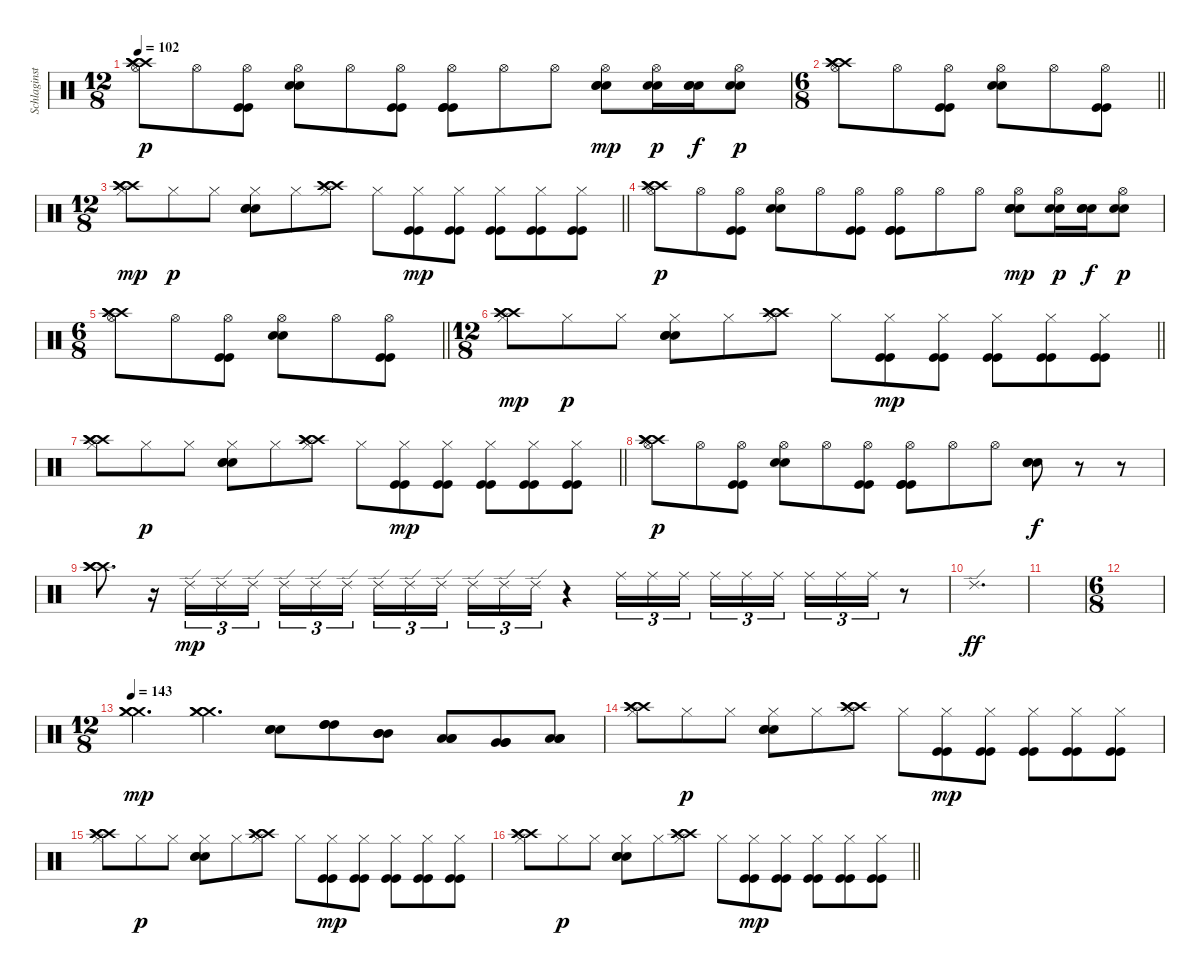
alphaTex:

\track ("Schlaginstrumente - Auswahl" "Schlaginst") {instrument percussion}
\staff {score}
\articulation defaults
\ts (12 8)
\tempo 102
\clef neutral
\ks c
("Hi-Hat (open)" "Crash high (hit)" "Crash high (hit)" "Crash high (hit)").8{dy p} "Hi-Hat (open)".8 ("Hi-Hat (open)" "Kick (hit)" "Kick (hit)").8 ("Hi-Hat (open)" "Snare (hit) 2" "Snare (hit) 2").8 "Hi-Hat (open)".8 ("Hi-Hat (open)" "Kick (hit)" "Kick (hit)").8 ("Hi-Hat (open)" "Kick (hit)" "Kick (hit)" "Kick (hit)").8 "Hi-Hat (open)".8 "Hi-Hat (open)".8 ("Hi-Hat (open)" "Snare (hit) 2" "Snare (hit) 2" "Snare (hit) 2").8{dy mp} ("Hi-Hat (open)" "Snare (hit) 2" "Snare (hit) 2").16{dy p} ("Snare (hit) 2" "Snare (hit) 2" "Snare (hit) 2").16{dy f} ("Hi-Hat (open)" "Snare (hit) 2" "Snare (hit) 2").8{dy p} |
\ts (6 8)
\barLineRight lightlight
("Hi-Hat (open)" "Crash high (hit)" "Crash high (hit)" "Crash high (hit)").8 "Hi-Hat (open)".8 ("Hi-Hat (open)" "Kick (hit)" "Kick (hit)").8 ("Hi-Hat (open)" "Snare (hit) 2" "Snare (hit) 2").8 "Hi-Hat (open)".8 ("Hi-Hat (open)" "Kick (hit)" "Kick (hit)").8 |
\ts (12 8)
\barLineRight lightlight
("Hi-Hat (closed)" "Crash high (hit)" "Crash high (hit)" "Crash high (hit)").8{dy mp} "Hi-Hat (closed)".8{dy p} "Hi-Hat (closed)".8 ("Hi-Hat (closed)" "Snare (hit) 2" "Snare (hit) 2" "Metronome (bell)").8 "Hi-Hat (closed)".8 ("Hi-Hat (closed)" "Crash high (hit)" "Crash high (hit)" "Crash high (hit)").8 "Hi-Hat (closed)".8 ("Hi-Hat (closed)" "Kick (hit)" "Kick (hit)").8{dy mp} ("Hi-Hat (closed)" "Kick (hit)" "Kick (hit)").8 ("Hi-Hat (closed)" "Kick (hit)" "Kick (hit)").8 ("Hi-Hat (closed)" "Kick (hit)" "Kick (hit)").8 ("Hi-Hat (closed)" "Kick (hit)" "Kick (hit)").8 |
("Hi-Hat (open)" "Crash high (hit)" "Crash high (hit)" "Crash high (hit)").8{dy p} "Hi-Hat (open)".8 ("Hi-Hat (open)" "Kick (hit)" "Kick (hit)").8 ("Hi-Hat (open)" "Snare (hit) 2" "Snare (hit) 2").8 "Hi-Hat (open)".8 ("Hi-Hat (open)" "Kick (hit)" "Kick (hit)").8 ("Hi-Hat (open)" "Kick (hit)" "Kick (hit)" "Kick (hit)").8 "Hi-Hat (open)".8 "Hi-Hat (open)".8 ("Hi-Hat (open)" "Snare (hit) 2" "Snare (hit) 2" "Snare (hit) 2").8{dy mp} ("Hi-Hat (open)" "Snare (hit) 2" "Snare (hit) 2").16{dy p} ("Snare (hit) 2" "Snare (hit) 2" "Snare (hit) 2").16{dy f} ("Hi-Hat (open)" "Snare (hit) 2" "Snare (hit) 2").8{dy p} |
\ts (6 8)
\barLineRight lightlight
("Hi-Hat (open)" "Crash high (hit)" "Crash high (hit)" "Crash high (hit)").8 "Hi-Hat (open)".8 ("Hi-Hat (open)" "Kick (hit)" "Kick (hit)").8 ("Hi-Hat (open)" "Snare (hit) 2" "Snare (hit) 2").8 "Hi-Hat (open)".8 ("Hi-Hat (open)" "Kick (hit)" "Kick (hit)").8 |
\ts (12 8)
\barLineRight lightlight
("Hi-Hat (closed)" "Crash high (hit)" "Crash high (hit)" "Crash high (hit)").8{dy mp} "Hi-Hat (closed)".8{dy p} "Hi-Hat (closed)".8 ("Hi-Hat (closed)" "Snare (hit) 2" "Snare (hit) 2" "Metronome (bell)").8 "Hi-Hat (closed)".8 ("Hi-Hat (closed)" "Crash high (hit)" "Crash high (hit)" "Crash high (hit)").8 "Hi-Hat (closed)".8 ("Hi-Hat (closed)" "Kick (hit)" "Kick (hit)").8{dy mp} ("Hi-Hat (closed)" "Kick (hit)" "Kick (hit)").8 ("Hi-Hat (closed)" "Kick (hit)" "Kick (hit)").8 ("Hi-Hat (closed)" "Kick (hit)" "Kick (hit)").8 ("Hi-Hat (closed)" "Kick (hit)" "Kick (hit)").8 |
\barLineRight lightlight
("Hi-Hat (closed)" "Crash high (hit)" "Crash high (hit)" "Crash high (hit)").8 "Hi-Hat (closed)".8{dy p} "Hi-Hat (closed)".8 ("Hi-Hat (closed)" "Snare (hit) 2" "Snare (hit) 2" "Metronome (bell)").8 "Hi-Hat (closed)".8 ("Hi-Hat (closed)" "Crash high (hit)" "Crash high (hit)" "Crash high (hit)").8 "Hi-Hat (closed)".8 ("Hi-Hat (closed)" "Kick (hit)" "Kick (hit)").8{dy mp} ("Hi-Hat (closed)" "Kick (hit)" "Kick (hit)").8 ("Hi-Hat (closed)" "Kick (hit)" "Kick (hit)").8 ("Hi-Hat (closed)" "Kick (hit)" "Kick (hit)").8 ("Hi-Hat (closed)" "Kick (hit)" "Kick (hit)").8 |
("Hi-Hat (open)" "Crash high (hit)" "Crash high (hit)" "Crash high (hit)").8{dy p} "Hi-Hat (open)".8 ("Hi-Hat (open)" "Kick (hit)" "Kick (hit)").8 ("Hi-Hat (open)" "Snare (hit) 2" "Snare (hit) 2").8 "Hi-Hat (open)".8 ("Hi-Hat (open)" "Kick (hit)" "Kick (hit)").8 ("Hi-Hat (open)" "Kick (hit)" "Kick (hit)" "Kick (hit)").8 "Hi-Hat (open)".8 "Hi-Hat (open)".8 ("Snare (hit) 2" "Snare (hit) 2" "Snare (hit) 2").8{dy f} r.8 r.8 |
("Crash high (hit)" "Crash high (hit)" "Crash high (hit)").8{d} r.16{volume 0} "Ride (edge) 2".16{tu (3 2) dy mp volume 12} "Ride (edge) 2".16{tu (3 2)} "Ride (edge) 2".16{tu (3 2)} "Ride (edge) 2".16{tu (3 2)} "Ride (edge) 2".16{tu (3 2)} "Ride (edge) 2".16{tu (3 2) beam splitsecondary} "Ride (edge) 2".16{tu (3 2) volume 0} "Ride (edge) 2".16{tu (3 2)} "Ride (edge) 2".16{tu (3 2) beam splitsecondary} "Ride (edge) 2".16{tu (3 2)} "Ride (edge) 2".16{tu (3 2)} "Ride (edge) 2".16{tu (3 2)} r.4 "Ride (middle)".16{tu (3 2) volume 12} "Ride (middle)".16{tu (3 2)} "Ride (middle)".16{tu (3 2)} "Ride (middle)".16{tu (3 2)} "Ride (middle)".16{tu (3 2)} "Ride (middle)".16{tu (3 2) volume 0 beam splitsecondary} "Ride (middle)".16{tu (3 2)} "Ride (middle)".16{tu (3 2)} "Ride (middle)".16{tu (3 2)} r.8 |
"Ride (edge) 2".1{d dy ff volume 12} |
|
\ts (6 8)
|
\ts (12 8)
\tempo 143
("Crash medium (hit)" "Crash medium (hit)" "Crash medium (hit)").4{d dy mp} ("Crash medium (hit)" "Crash medium (hit)" "Crash medium (hit)").4{d} ("Snare (hit) 2" "Snare (hit) 2" "Snare (hit) 2").8 ("High Tom (hit)" "High Tom (hit)" "High Tom (hit)").8 ("Mid Tom (hit)" "Mid Tom (hit)" "Mid Tom (hit)").8 ("Low Tom (hit)" "Low Tom (hit)" "Low Tom (hit)").8 ("Very Low Tom (hit)" "Very Low Tom (hit)" "Very Low Tom (hit)").8 ("Low Floor Tom (hit)" "Low Floor Tom (hit)" "Low Floor Tom (hit)").8 |
("Hi-Hat (closed)" "Crash high (hit)" "Crash high (hit)" "Crash high (hit)").8 "Hi-Hat (closed)".8{dy p} "Hi-Hat (closed)".8 ("Hi-Hat (closed)" "Snare (hit) 2" "Snare (hit) 2" "Metronome (bell)").8 "Hi-Hat (closed)".8 ("Hi-Hat (closed)" "Crash high (hit)" "Crash high (hit)" "Crash high (hit)").8 "Hi-Hat (closed)".8 ("Hi-Hat (closed)" "Kick (hit)" "Kick (hit)").8{dy mp} ("Hi-Hat (closed)" "Kick (hit)" "Kick (hit)").8 ("Hi-Hat (closed)" "Kick (hit)" "Kick (hit)").8 ("Hi-Hat (closed)" "Kick (hit)" "Kick (hit)").8 ("Hi-Hat (closed)" "Kick (hit)" "Kick (hit)").8 |
("Hi-Hat (closed)" "Crash high (hit)" "Crash high (hit)" "Crash high (hit)").8 "Hi-Hat (closed)".8{dy p} "Hi-Hat (closed)".8 ("Hi-Hat (closed)" "Snare (hit) 2" "Snare (hit) 2" "Metronome (bell)").8 "Hi-Hat (closed)".8 ("Hi-Hat (closed)" "Crash high (hit)" "Crash high (hit)" "Crash high (hit)").8 "Hi-Hat (closed)".8 ("Hi-Hat (closed)" "Kick (hit)" "Kick (hit)").8{dy mp} ("Hi-Hat (closed)" "Kick (hit)" "Kick (hit)").8 ("Hi-Hat (closed)" "Kick (hit)" "Kick (hit)").8 ("Hi-Hat (closed)" "Kick (hit)" "Kick (hit)").8 ("Hi-Hat (closed)" "Kick (hit)" "Kick (hit)").8 |
\barLineRight lightlight
("Hi-Hat (closed)" "Crash high (hit)" "Crash high (hit)" "Crash high (hit)").8 "Hi-Hat (closed)".8{dy p} "Hi-Hat (closed)".8 ("Hi-Hat (closed)" "Snare (hit) 2" "Snare (hit) 2" "Metronome (bell)").8 "Hi-Hat (closed)".8 ("Hi-Hat (closed)" "Crash high (hit)" "Crash high (hit)" "Crash high (hit)").8 "Hi-Hat (closed)".8 ("Hi-Hat (closed)" "Kick (hit)" "Kick (hit)").8{dy mp} ("Hi-Hat (closed)" "Kick (hit)" "Kick (hit)").8 ("Hi-Hat (closed)" "Kick (hit)" "Kick (hit)").8 ("Hi-Hat (closed)" "Kick (hit)" "Kick (hit)").8 ("Hi-Hat (closed)" "Kick (hit)" "Kick (hit)").8
